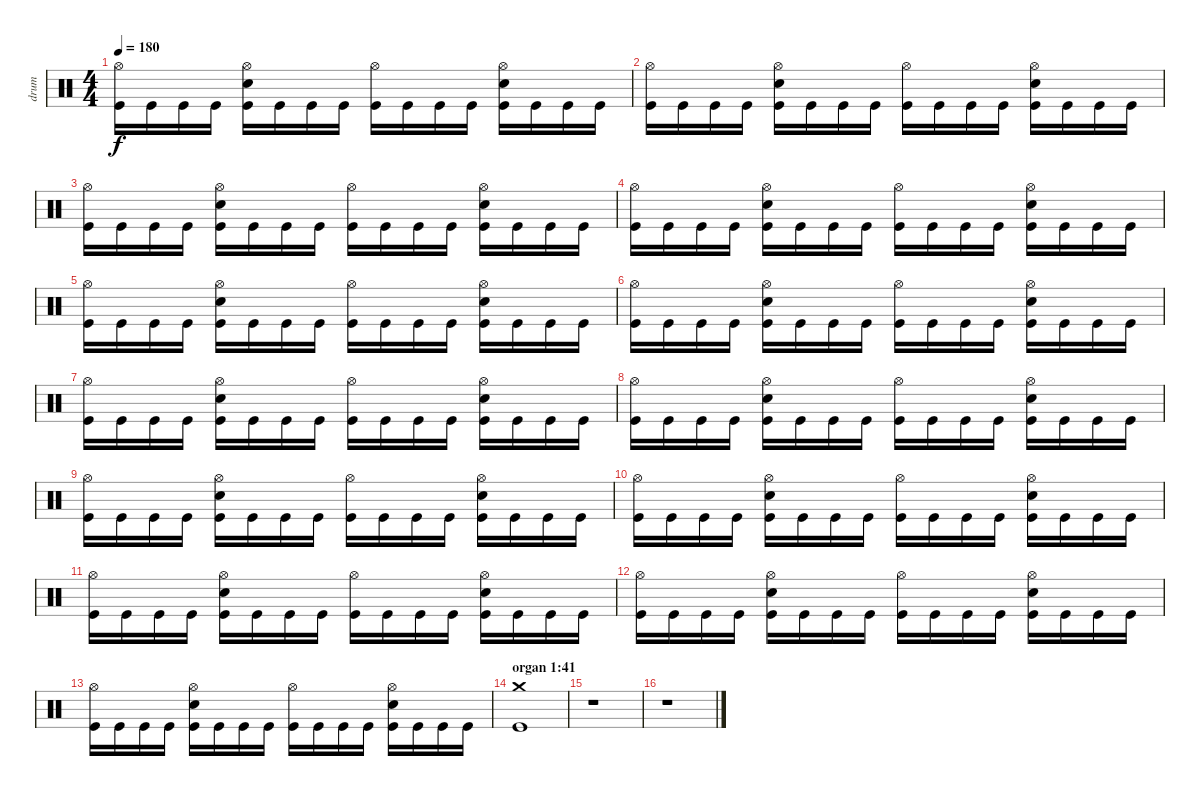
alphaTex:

\track ("drum" "drum") {instrument percussion}
\staff {score}
\articulation defaults
\ts (4 4)
\tempo 180
\clef neutral
\ks c
("Hi-Hat (open)" "Kick (hit)").16{dy f} "Kick (hit)".16 "Kick (hit)".16 "Kick (hit)".16 ("Hi-Hat (open)" "Snare (hit) 2" "Kick (hit)").16 "Kick (hit)".16 "Kick (hit)".16 "Kick (hit)".16 ("Hi-Hat (open)" "Kick (hit)").16 "Kick (hit)".16 "Kick (hit)".16 "Kick (hit)".16 ("Hi-Hat (open)" "Snare (hit) 2" "Kick (hit)").16 "Kick (hit)".16 "Kick (hit)".16 "Kick (hit)".16 |
("Hi-Hat (open)" "Kick (hit)").16 "Kick (hit)".16 "Kick (hit)".16 "Kick (hit)".16 ("Hi-Hat (open)" "Snare (hit) 2" "Kick (hit)").16 "Kick (hit)".16 "Kick (hit)".16 "Kick (hit)".16 ("Hi-Hat (open)" "Kick (hit)").16 "Kick (hit)".16 "Kick (hit)".16 "Kick (hit)".16 ("Hi-Hat (open)" "Snare (hit) 2" "Kick (hit)").16 "Kick (hit)".16 "Kick (hit)".16 "Kick (hit)".16 |
("Hi-Hat (open)" "Kick (hit)").16 "Kick (hit)".16 "Kick (hit)".16 "Kick (hit)".16 ("Hi-Hat (open)" "Snare (hit) 2" "Kick (hit)").16 "Kick (hit)".16 "Kick (hit)".16 "Kick (hit)".16 ("Hi-Hat (open)" "Kick (hit)").16 "Kick (hit)".16 "Kick (hit)".16 "Kick (hit)".16 ("Hi-Hat (open)" "Snare (hit) 2" "Kick (hit)").16 "Kick (hit)".16 "Kick (hit)".16 "Kick (hit)".16 |
("Hi-Hat (open)" "Kick (hit)").16 "Kick (hit)".16 "Kick (hit)".16 "Kick (hit)".16 ("Hi-Hat (open)" "Snare (hit) 2" "Kick (hit)").16 "Kick (hit)".16 "Kick (hit)".16 "Kick (hit)".16 ("Hi-Hat (open)" "Kick (hit)").16 "Kick (hit)".16 "Kick (hit)".16 "Kick (hit)".16 ("Hi-Hat (open)" "Snare (hit) 2" "Kick (hit)").16 "Kick (hit)".16 "Kick (hit)".16 "Kick (hit)".16 |
("Hi-Hat (open)" "Kick (hit)").16 "Kick (hit)".16 "Kick (hit)".16 "Kick (hit)".16 ("Hi-Hat (open)" "Snare (hit) 2" "Kick (hit)").16 "Kick (hit)".16 "Kick (hit)".16 "Kick (hit)".16 ("Hi-Hat (open)" "Kick (hit)").16 "Kick (hit)".16 "Kick (hit)".16 "Kick (hit)".16 ("Hi-Hat (open)" "Snare (hit) 2" "Kick (hit)").16 "Kick (hit)".16 "Kick (hit)".16 "Kick (hit)".16 |
("Hi-Hat (open)" "Kick (hit)").16 "Kick (hit)".16 "Kick (hit)".16 "Kick (hit)".16 ("Hi-Hat (open)" "Snare (hit) 2" "Kick (hit)").16 "Kick (hit)".16 "Kick (hit)".16 "Kick (hit)".16 ("Hi-Hat (open)" "Kick (hit)").16 "Kick (hit)".16 "Kick (hit)".16 "Kick (hit)".16 ("Hi-Hat (open)" "Snare (hit) 2" "Kick (hit)").16 "Kick (hit)".16 "Kick (hit)".16 "Kick (hit)".16 |
("Hi-Hat (open)" "Kick (hit)").16 "Kick (hit)".16 "Kick (hit)".16 "Kick (hit)".16 ("Hi-Hat (open)" "Snare (hit) 2" "Kick (hit)").16 "Kick (hit)".16 "Kick (hit)".16 "Kick (hit)".16 ("Hi-Hat (open)" "Kick (hit)").16 "Kick (hit)".16 "Kick (hit)".16 "Kick (hit)".16 ("Hi-Hat (open)" "Snare (hit) 2" "Kick (hit)").16 "Kick (hit)".16 "Kick (hit)".16 "Kick (hit)".16 |
("Hi-Hat (open)" "Kick (hit)").16 "Kick (hit)".16 "Kick (hit)".16 "Kick (hit)".16 ("Hi-Hat (open)" "Snare (hit) 2" "Kick (hit)").16 "Kick (hit)".16 "Kick (hit)".16 "Kick (hit)".16 ("Hi-Hat (open)" "Kick (hit)").16 "Kick (hit)".16 "Kick (hit)".16 "Kick (hit)".16 ("Hi-Hat (open)" "Snare (hit) 2" "Kick (hit)").16 "Kick (hit)".16 "Kick (hit)".16 "Kick (hit)".16 |
("Hi-Hat (open)" "Kick (hit)").16 "Kick (hit)".16 "Kick (hit)".16 "Kick (hit)".16 ("Hi-Hat (open)" "Snare (hit) 2" "Kick (hit)").16 "Kick (hit)".16 "Kick (hit)".16 "Kick (hit)".16 ("Hi-Hat (open)" "Kick (hit)").16 "Kick (hit)".16 "Kick (hit)".16 "Kick (hit)".16 ("Hi-Hat (open)" "Snare (hit) 2" "Kick (hit)").16 "Kick (hit)".16 "Kick (hit)".16 "Kick (hit)".16 |
("Hi-Hat (open)" "Kick (hit)").16 "Kick (hit)".16 "Kick (hit)".16 "Kick (hit)".16 ("Hi-Hat (open)" "Snare (hit) 2" "Kick (hit)").16 "Kick (hit)".16 "Kick (hit)".16 "Kick (hit)".16 ("Hi-Hat (open)" "Kick (hit)").16 "Kick (hit)".16 "Kick (hit)".16 "Kick (hit)".16 ("Hi-Hat (open)" "Snare (hit) 2" "Kick (hit)").16 "Kick (hit)".16 "Kick (hit)".16 "Kick (hit)".16 |
("Hi-Hat (open)" "Kick (hit)").16 "Kick (hit)".16 "Kick (hit)".16 "Kick (hit)".16 ("Hi-Hat (open)" "Snare (hit) 2" "Kick (hit)").16 "Kick (hit)".16 "Kick (hit)".16 "Kick (hit)".16 ("Hi-Hat (open)" "Kick (hit)").16 "Kick (hit)".16 "Kick (hit)".16 "Kick (hit)".16 ("Hi-Hat (open)" "Snare (hit) 2" "Kick (hit)").16 "Kick (hit)".16 "Kick (hit)".16 "Kick (hit)".16 |
("Hi-Hat (open)" "Kick (hit)").16 "Kick (hit)".16 "Kick (hit)".16 "Kick (hit)".16 ("Hi-Hat (open)" "Snare (hit) 2" "Kick (hit)").16 "Kick (hit)".16 "Kick (hit)".16 "Kick (hit)".16 ("Hi-Hat (open)" "Kick (hit)").16 "Kick (hit)".16 "Kick (hit)".16 "Kick (hit)".16 ("Hi-Hat (open)" "Snare (hit) 2" "Kick (hit)").16 "Kick (hit)".16 "Kick (hit)".16 "Kick (hit)".16 |
("Hi-Hat (open)" "Kick (hit)").16 "Kick (hit)".16 "Kick (hit)".16 "Kick (hit)".16 ("Hi-Hat (open)" "Snare (hit) 2" "Kick (hit)").16 "Kick (hit)".16 "Kick (hit)".16 "Kick (hit)".16 ("Hi-Hat (open)" "Kick (hit)").16 "Kick (hit)".16 "Kick (hit)".16 "Kick (hit)".16 ("Hi-Hat (open)" "Snare (hit) 2" "Kick (hit)").16 "Kick (hit)".16 "Kick (hit)".16 "Kick (hit)".16 |
\section ("" "organ 1:41")
("Crash medium (hit)" "Kick (hit)").1 |
r.1 |
r.1
